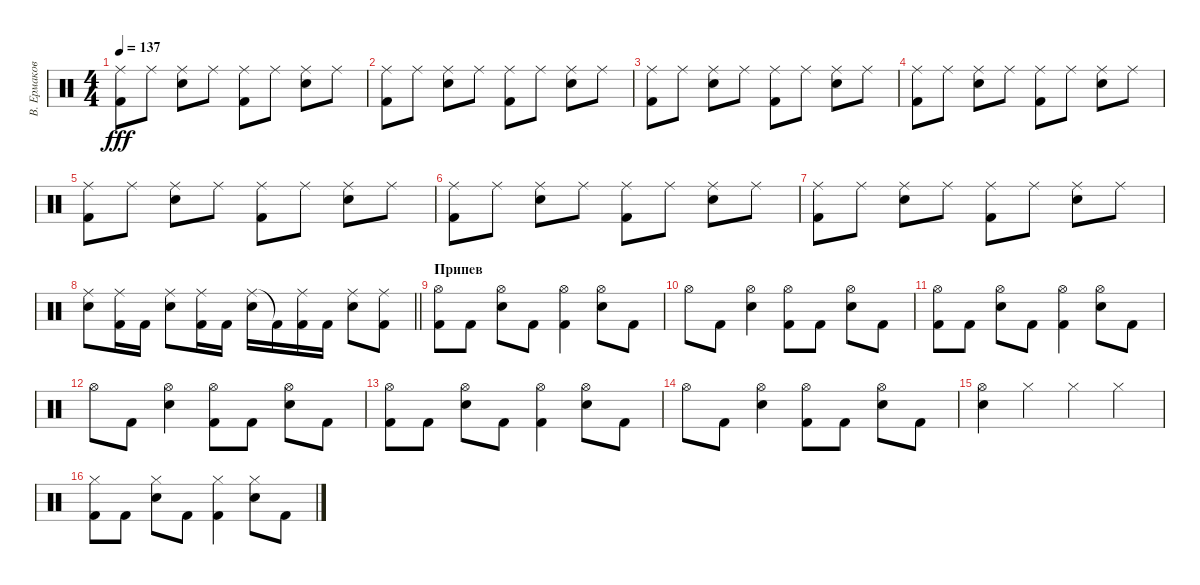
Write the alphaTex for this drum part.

\track ("В. Ермаков" "В. Ермаков") {instrument percussion}
\staff {score}
\articulation defaults
\ts (4 4)
\tempo 137
\clef neutral
\ks c
("Ride (middle)" "Kick (hit) 2").8{dy fff} "Ride (middle)".8 ("Ride (middle)" "Snare (hit) 2").8 "Ride (middle)".8 ("Ride (middle)" "Kick (hit) 2").8 "Ride (middle)".8 ("Ride (middle)" "Snare (hit) 2").8 "Ride (middle)".8 |
("Ride (middle)" "Kick (hit) 2").8 "Ride (middle)".8 ("Ride (middle)" "Snare (hit) 2").8 "Ride (middle)".8 ("Ride (middle)" "Kick (hit) 2").8 "Ride (middle)".8 ("Ride (middle)" "Snare (hit) 2").8 "Ride (middle)".8 |
("Ride (middle)" "Kick (hit) 2").8 "Ride (middle)".8 ("Ride (middle)" "Snare (hit) 2").8 "Ride (middle)".8 ("Ride (middle)" "Kick (hit) 2").8 "Ride (middle)".8 ("Ride (middle)" "Snare (hit) 2").8 "Ride (middle)".8 |
("Ride (middle)" "Kick (hit) 2").8 "Ride (middle)".8 ("Ride (middle)" "Snare (hit) 2").8 "Ride (middle)".8 ("Ride (middle)" "Kick (hit) 2").8 "Ride (middle)".8 ("Ride (middle)" "Snare (hit) 2").8 "Ride (middle)".8 |
("Ride (middle)" "Kick (hit) 2").8 "Ride (middle)".8 ("Ride (middle)" "Snare (hit) 2").8 "Ride (middle)".8 ("Ride (middle)" "Kick (hit) 2").8 "Ride (middle)".8 ("Ride (middle)" "Snare (hit) 2").8 "Ride (middle)".8 |
("Ride (middle)" "Kick (hit) 2").8 "Ride (middle)".8 ("Ride (middle)" "Snare (hit) 2").8 "Ride (middle)".8 ("Ride (middle)" "Kick (hit) 2").8 "Ride (middle)".8 ("Ride (middle)" "Snare (hit) 2").8 "Ride (middle)".8 |
("Ride (middle)" "Kick (hit) 2").8 "Ride (middle)".8 ("Ride (middle)" "Snare (hit) 2").8 "Ride (middle)".8 ("Ride (middle)" "Kick (hit) 2").8 "Ride (middle)".8 ("Ride (middle)" "Snare (hit) 2").8 "Ride (middle)".8 |
\barLineRight lightlight
("Ride (middle)" "Snare (hit) 2").8 ("Ride (middle)" "Kick (hit) 2").16 "Kick (hit) 2".16 ("Ride (middle)" "Snare (hit) 2").8 ("Ride (middle)" "Kick (hit) 2").16 "Kick (hit) 2".16 ("Ride (middle)" "Snare (hit) 2").16 "Kick (hit) 2"{t}.16 ("Ride (middle)" "Kick (hit) 2").16 "Kick (hit) 2".16 ("Ride (middle)" "Snare (hit) 2").8 ("Ride (middle)" "Kick (hit) 2").8 |
\section ("" "Припев")
("Kick (hit) 2" "Hi-Hat (open)").8 "Kick (hit) 2".8 ("Snare (hit) 2" "Hi-Hat (open)").8 "Kick (hit) 2".8 ("Kick (hit) 2" "Hi-Hat (open)").4 ("Snare (hit) 2" "Hi-Hat (open)").8 "Kick (hit) 2".8 |
"Hi-Hat (open)".8 "Kick (hit) 2".8 ("Hi-Hat (open)" "Snare (hit) 2").4 ("Hi-Hat (open)" "Kick (hit) 2").8 "Kick (hit) 2".8 ("Hi-Hat (open)" "Snare (hit) 2").8 "Kick (hit) 2".8 |
("Kick (hit) 2" "Hi-Hat (open)").8 "Kick (hit) 2".8 ("Snare (hit) 2" "Hi-Hat (open)").8 "Kick (hit) 2".8 ("Kick (hit) 2" "Hi-Hat (open)").4 ("Snare (hit) 2" "Hi-Hat (open)").8 "Kick (hit) 2".8 |
"Hi-Hat (open)".8 "Kick (hit) 2".8 ("Hi-Hat (open)" "Snare (hit) 2").4 ("Hi-Hat (open)" "Kick (hit) 2").8 "Kick (hit) 2".8 ("Hi-Hat (open)" "Snare (hit) 2").8 "Kick (hit) 2".8 |
("Kick (hit) 2" "Hi-Hat (open)").8 "Kick (hit) 2".8 ("Snare (hit) 2" "Hi-Hat (open)").8 "Kick (hit) 2".8 ("Kick (hit) 2" "Hi-Hat (open)").4 ("Snare (hit) 2" "Hi-Hat (open)").8 "Kick (hit) 2".8 |
"Hi-Hat (open)".8 "Kick (hit) 2".8 ("Hi-Hat (open)" "Snare (hit) 2").4 ("Hi-Hat (open)" "Kick (hit) 2").8 "Kick (hit) 2".8 ("Hi-Hat (open)" "Snare (hit) 2").8 "Kick (hit) 2".8 |
("Hi-Hat (open)" "Snare (hit) 2").4 "Hi-Hat (closed)".4 "Hi-Hat (closed)".4 "Hi-Hat (closed)".4 |
("Kick (hit) 2" "Hi-Hat (closed)").8 "Kick (hit) 2".8 ("Snare (hit) 2" "Hi-Hat (closed)").8 "Kick (hit) 2".8 ("Kick (hit) 2" "Hi-Hat (closed)").4 ("Snare (hit) 2" "Hi-Hat (closed)").8 "Kick (hit) 2".8
